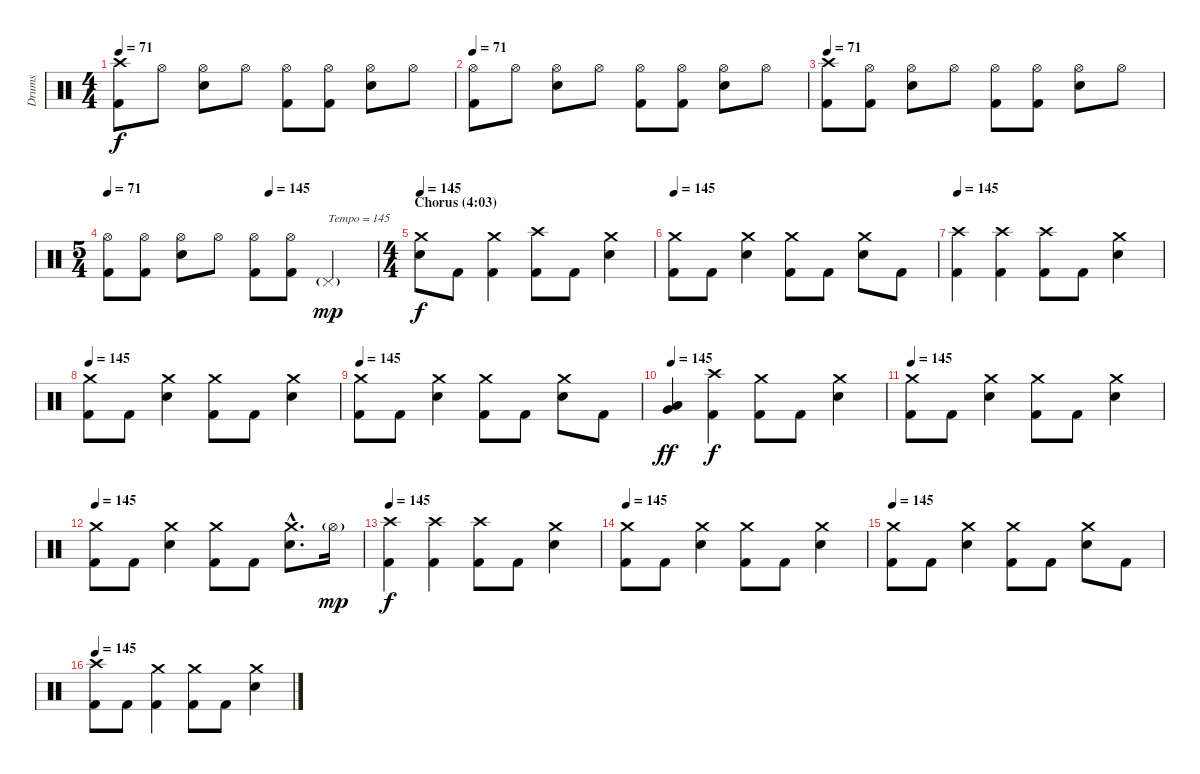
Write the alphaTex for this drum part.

\track ("Drums" "Drums") {instrument percussion}
\staff {score}
\articulation defaults
\ts (4 4)
\tempo 71
\clef neutral
\ks c
("Crash high (hit)" "Kick (hit) 2").8{dy f} "Hi-Hat (open)".8 ("Hi-Hat (open)" "Snare (hit) 2").8 "Hi-Hat (open)".8 ("Hi-Hat (open)" "Kick (hit) 2").8 ("Hi-Hat (open)" "Kick (hit) 2").8 ("Hi-Hat (open)" "Snare (hit) 2").8 "Hi-Hat (open)".8 |
\tempo 71
("Hi-Hat (open)" "Kick (hit) 2").8 "Hi-Hat (open)".8 ("Hi-Hat (open)" "Snare (hit) 2").8 "Hi-Hat (open)".8 ("Hi-Hat (open)" "Kick (hit) 2").8 ("Hi-Hat (open)" "Kick (hit) 2").8 ("Hi-Hat (open)" "Snare (hit) 2").8 "Hi-Hat (open)".8 |
\tempo 71
("Crash high (hit)" "Kick (hit) 2").8 ("Hi-Hat (open)" "Kick (hit) 2").8 ("Hi-Hat (open)" "Snare (hit) 2").8 "Hi-Hat (open)".8 ("Hi-Hat (open)" "Kick (hit) 2").8 ("Hi-Hat (open)" "Kick (hit) 2").8 ("Hi-Hat (open)" "Snare (hit) 2").8 "Hi-Hat (open)".8 |
\ts (5 4)
\tempo 71
\tempo (145 0.6)
("Hi-Hat (open)" "Kick (hit) 2").8 ("Hi-Hat (open)" "Kick (hit) 2").8 ("Hi-Hat (open)" "Snare (hit) 2").8 "Hi-Hat (open)".8 ("Hi-Hat (open)" "Kick (hit) 2").8 ("Hi-Hat (open)" "Kick (hit) 2").8 "Pedal Hi-Hat (hit)"{g}.2{txt "Tempo = 145" dy mp} |
\ts (4 4)
\section ("" "Chorus (4:03)")
\tempo 145
("Crash medium (hit)" "Snare (hit) 2").8{dy f} "Kick (hit) 2".8 ("Crash medium (hit)" "Kick (hit) 2").4 ("Crash high (hit)" "Kick (hit) 2").8 "Kick (hit) 2".8 ("Crash medium (hit)" "Snare (hit) 2").4 |
\tempo 145
("Crash medium (hit)" "Kick (hit) 2").8 "Kick (hit) 2".8 ("Crash medium (hit)" "Snare (hit) 2").4 ("Crash medium (hit)" "Kick (hit) 2").8 "Kick (hit) 2".8 ("Crash medium (hit)" "Snare (hit) 2").8 "Kick (hit) 2".8 |
\tempo 145
("Crash high (hit)" "Kick (hit) 2").4 ("Crash high (hit)" "Kick (hit) 2").4 ("Crash high (hit)" "Kick (hit) 2").8 "Kick (hit) 2".8 ("Crash medium (hit)" "Snare (hit) 2").4 |
\tempo 145
("Crash medium (hit)" "Kick (hit) 2").8 "Kick (hit) 2".8 ("Crash medium (hit)" "Snare (hit) 2").4 ("Crash medium (hit)" "Kick (hit) 2").8 "Kick (hit) 2".8 ("Crash medium (hit)" "Snare (hit) 2").4 |
\tempo 145
("Crash medium (hit)" "Kick (hit) 2").8 "Kick (hit) 2".8 ("Crash medium (hit)" "Snare (hit) 2").4 ("Crash medium (hit)" "Kick (hit) 2").8 "Kick (hit) 2".8 ("Crash medium (hit)" "Snare (hit) 2").8 "Kick (hit) 2".8 |
\tempo 145
("Low Tom (hit)" "Very Low Tom (hit)").4{dy ff} ("Crash high (hit)" "Kick (hit) 2").4{dy f} ("Crash medium (hit)" "Kick (hit) 2").8 "Kick (hit) 2".8 ("Crash medium (hit)" "Snare (hit) 2").4 |
\tempo 145
("Crash medium (hit)" "Kick (hit) 2").8 "Kick (hit) 2".8 ("Crash medium (hit)" "Snare (hit) 2").4 ("Crash medium (hit)" "Kick (hit) 2").8 "Kick (hit) 2".8 ("Crash medium (hit)" "Snare (hit) 2").4 |
\tempo 145
("Crash medium (hit)" "Kick (hit) 2").8 "Kick (hit) 2".8 ("Crash medium (hit)" "Snare (hit) 2").4 ("Crash medium (hit)" "Kick (hit) 2").8 "Kick (hit) 2".8 ("Crash medium (hit)"{hac} "Snare (hit) 2"{hac}).8{d} "Hi-Hat (open)"{g}.16{dy mp} |
\tempo 145
("Crash high (hit)" "Kick (hit) 2").4{dy f} ("Crash high (hit)" "Kick (hit) 2").4 ("Crash high (hit)" "Kick (hit) 2").8 "Kick (hit) 2".8 ("Crash medium (hit)" "Snare (hit) 2").4 |
\tempo 145
("Crash medium (hit)" "Kick (hit) 2").8 "Kick (hit) 2".8 ("Crash medium (hit)" "Snare (hit) 2").4 ("Crash medium (hit)" "Kick (hit) 2").8 "Kick (hit) 2".8 ("Crash medium (hit)" "Snare (hit) 2").4 |
\tempo 145
("Crash medium (hit)" "Kick (hit) 2").8 "Kick (hit) 2".8 ("Crash medium (hit)" "Snare (hit) 2").4 ("Crash medium (hit)" "Kick (hit) 2").8 "Kick (hit) 2".8 ("Crash medium (hit)" "Snare (hit) 2").8 "Kick (hit) 2".8 |
\tempo 145
("Crash high (hit)" "Kick (hit) 2").8 "Kick (hit) 2".8 ("Crash medium (hit)" "Kick (hit) 2").4 ("Crash medium (hit)" "Kick (hit) 2").8 "Kick (hit) 2".8 ("Crash medium (hit)" "Snare (hit) 2").4
